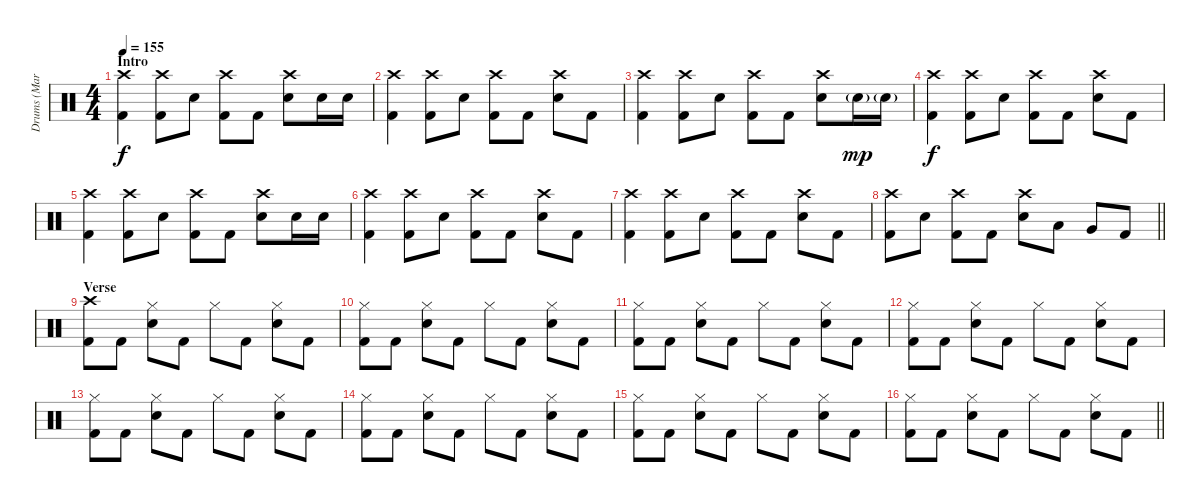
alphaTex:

\track ("Drums (Mark)" "Drums (Mar") {instrument percussion}
\staff {score}
\articulation defaults
\ts (4 4)
\section ("" "Intro")
\tempo 155
\clef neutral
\ks c
("Crash high (hit)" "Kick (hit) 2").4{dy f} ("Crash high (hit)" "Kick (hit) 2").8 "Snare (hit) 2".8 ("Crash high (hit)" "Kick (hit) 2").8 "Kick (hit) 2".8 ("Crash high (hit)" "Snare (hit) 2").8 "Snare (hit) 2".16 "Snare (hit) 2".16 |
("Crash high (hit)" "Kick (hit) 2").4 ("Crash high (hit)" "Kick (hit) 2").8 "Snare (hit) 2".8 ("Crash high (hit)" "Kick (hit) 2").8 "Kick (hit) 2".8 ("Crash high (hit)" "Snare (hit) 2").8 "Kick (hit) 2".8 |
("Crash high (hit)" "Kick (hit) 2").4 ("Crash high (hit)" "Kick (hit) 2").8 "Snare (hit) 2".8 ("Crash high (hit)" "Kick (hit) 2").8 "Kick (hit) 2".8 ("Crash high (hit)" "Snare (hit) 2").8 "Snare (hit) 2"{g}.16{dy mp} "Snare (hit) 2"{g}.16 |
("Crash high (hit)" "Kick (hit) 2").4{dy f} ("Crash high (hit)" "Kick (hit) 2").8 "Snare (hit) 2".8 ("Crash high (hit)" "Kick (hit) 2").8 "Kick (hit) 2".8 ("Crash high (hit)" "Snare (hit) 2").8 "Kick (hit) 2".8 |
("Crash high (hit)" "Kick (hit) 2").4 ("Crash high (hit)" "Kick (hit) 2").8 "Snare (hit) 2".8 ("Crash high (hit)" "Kick (hit) 2").8 "Kick (hit) 2".8 ("Crash high (hit)" "Snare (hit) 2").8 "Snare (hit) 2".16 "Snare (hit) 2".16 |
("Crash high (hit)" "Kick (hit) 2").4 ("Crash high (hit)" "Kick (hit) 2").8 "Snare (hit) 2".8 ("Crash high (hit)" "Kick (hit) 2").8 "Kick (hit) 2".8 ("Crash high (hit)" "Snare (hit) 2").8 "Kick (hit) 2".8 |
("Crash high (hit)" "Kick (hit) 2").4 ("Crash high (hit)" "Kick (hit) 2").8 "Snare (hit) 2".8 ("Crash high (hit)" "Kick (hit) 2").8 "Kick (hit) 2".8 ("Crash high (hit)" "Snare (hit) 2").8 "Kick (hit) 2".8 |
\barLineRight lightlight
("Crash high (hit)" "Kick (hit) 2").8 "Snare (hit) 2".8 ("Crash high (hit)" "Kick (hit) 2").8 "Kick (hit) 2".8 ("Crash high (hit)" "Snare (hit) 2").8 "Low Tom (hit)".8 "Very Low Tom (hit)".8 "Kick (hit) 2".8 |
\section ("" "Verse")
("Crash high (hit)" "Kick (hit) 2").8 "Kick (hit) 2".8 ("Hi-Hat (closed)" "Snare (hit) 2").8 "Kick (hit) 2".8 "Hi-Hat (closed)".8 "Kick (hit) 2".8 ("Hi-Hat (closed)" "Snare (hit) 2").8 "Kick (hit) 2".8 |
("Hi-Hat (closed)" "Kick (hit) 2").8 "Kick (hit) 2".8 ("Hi-Hat (closed)" "Snare (hit) 2").8 "Kick (hit) 2".8 "Hi-Hat (closed)".8 "Kick (hit) 2".8 ("Hi-Hat (closed)" "Snare (hit) 2").8 "Kick (hit) 2".8 |
("Hi-Hat (closed)" "Kick (hit) 2").8 "Kick (hit) 2".8 ("Hi-Hat (closed)" "Snare (hit) 2").8 "Kick (hit) 2".8 "Hi-Hat (closed)".8 "Kick (hit) 2".8 ("Hi-Hat (closed)" "Snare (hit) 2").8 "Kick (hit) 2".8 |
("Hi-Hat (closed)" "Kick (hit) 2").8 "Kick (hit) 2".8 ("Hi-Hat (closed)" "Snare (hit) 2").8 "Kick (hit) 2".8 "Hi-Hat (closed)".8 "Kick (hit) 2".8 ("Hi-Hat (closed)" "Snare (hit) 2").8 "Kick (hit) 2".8 |
("Hi-Hat (closed)" "Kick (hit) 2").8 "Kick (hit) 2".8 ("Hi-Hat (closed)" "Snare (hit) 2").8 "Kick (hit) 2".8 "Hi-Hat (closed)".8 "Kick (hit) 2".8 ("Hi-Hat (closed)" "Snare (hit) 2").8 "Kick (hit) 2".8 |
("Hi-Hat (closed)" "Kick (hit) 2").8 "Kick (hit) 2".8 ("Hi-Hat (closed)" "Snare (hit) 2").8 "Kick (hit) 2".8 "Hi-Hat (closed)".8 "Kick (hit) 2".8 ("Hi-Hat (closed)" "Snare (hit) 2").8 "Kick (hit) 2".8 |
("Hi-Hat (closed)" "Kick (hit) 2").8 "Kick (hit) 2".8 ("Hi-Hat (closed)" "Snare (hit) 2").8 "Kick (hit) 2".8 "Hi-Hat (closed)".8 "Kick (hit) 2".8 ("Hi-Hat (closed)" "Snare (hit) 2").8 "Kick (hit) 2".8 |
\barLineRight lightlight
("Hi-Hat (closed)" "Kick (hit) 2").8 "Kick (hit) 2".8 ("Hi-Hat (closed)" "Snare (hit) 2").8 "Kick (hit) 2".8 "Hi-Hat (closed)".8 "Kick (hit) 2".8 ("Hi-Hat (closed)" "Snare (hit) 2").8 "Kick (hit) 2".8
